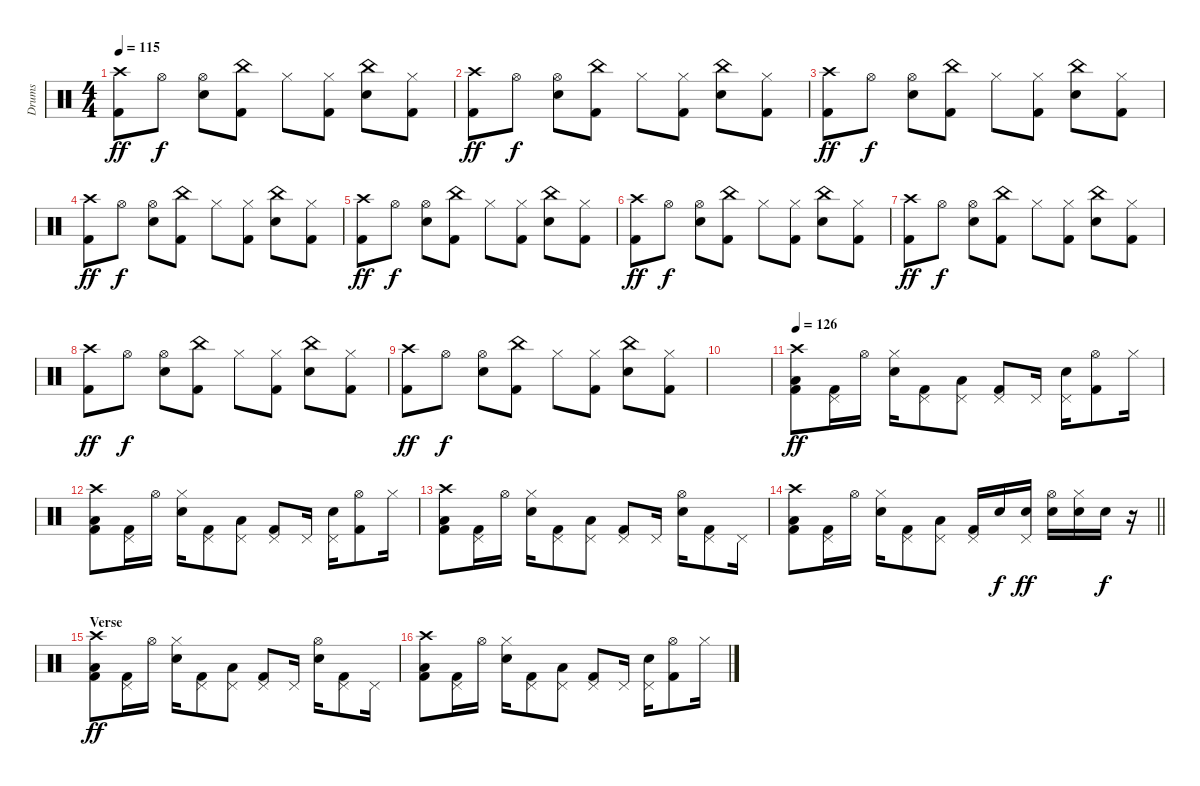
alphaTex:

\track ("Drums" "Drums") {instrument percussion}
\staff {score}
\articulation defaults
\ts (4 4)
\tempo 115
\clef neutral
\ks c
("Kick (hit) 2" "Crash high (hit)").8{dy ff} "Hi-Hat (open)".8{dy f} ("Electric Snare (hit)" "Hi-Hat (open)").8 ("Kick (hit) 2" "China (hit)").8 "Hi-Hat (closed)".8 ("Kick (hit) 2" "Hi-Hat (closed)").8 ("Snare (hit) 2" "China (hit)").8 ("Kick (hit) 2" "Hi-Hat (closed)").8 |
("Kick (hit) 2" "Crash high (hit)").8{dy ff} "Hi-Hat (open)".8{dy f} ("Electric Snare (hit)" "Hi-Hat (open)").8 ("Kick (hit) 2" "China (hit)").8 "Hi-Hat (closed)".8 ("Kick (hit) 2" "Hi-Hat (closed)").8 ("Snare (hit) 2" "China (hit)").8 ("Kick (hit) 2" "Hi-Hat (closed)").8 |
("Kick (hit) 2" "Crash high (hit)").8{dy ff} "Hi-Hat (open)".8{dy f} ("Electric Snare (hit)" "Hi-Hat (open)").8 ("Kick (hit) 2" "China (hit)").8 "Hi-Hat (closed)".8 ("Kick (hit) 2" "Hi-Hat (closed)").8 ("Snare (hit) 2" "China (hit)").8 ("Kick (hit) 2" "Hi-Hat (closed)").8 |
("Kick (hit) 2" "Crash high (hit)").8{dy ff} "Hi-Hat (open)".8{dy f} ("Electric Snare (hit)" "Hi-Hat (open)").8 ("Kick (hit) 2" "China (hit)").8 "Hi-Hat (closed)".8 ("Kick (hit) 2" "Hi-Hat (closed)").8 ("Snare (hit) 2" "China (hit)").8 ("Kick (hit) 2" "Hi-Hat (closed)").8 |
("Kick (hit) 2" "Crash high (hit)").8{dy ff} "Hi-Hat (open)".8{dy f} ("Electric Snare (hit)" "Hi-Hat (open)").8 ("Kick (hit) 2" "China (hit)").8 "Hi-Hat (closed)".8 ("Kick (hit) 2" "Hi-Hat (closed)").8 ("Snare (hit) 2" "China (hit)").8 ("Kick (hit) 2" "Hi-Hat (closed)").8 |
("Kick (hit) 2" "Crash high (hit)").8{dy ff} "Hi-Hat (open)".8{dy f} ("Electric Snare (hit)" "Hi-Hat (open)").8 ("Kick (hit) 2" "China (hit)").8 "Hi-Hat (closed)".8 ("Kick (hit) 2" "Hi-Hat (closed)").8 ("Snare (hit) 2" "China (hit)").8 ("Kick (hit) 2" "Hi-Hat (closed)").8 |
("Kick (hit) 2" "Crash high (hit)").8{dy ff} "Hi-Hat (open)".8{dy f} ("Electric Snare (hit)" "Hi-Hat (open)").8 ("Kick (hit) 2" "China (hit)").8 "Hi-Hat (closed)".8 ("Kick (hit) 2" "Hi-Hat (closed)").8 ("Snare (hit) 2" "China (hit)").8 ("Kick (hit) 2" "Hi-Hat (closed)").8 |
("Kick (hit) 2" "Crash high (hit)").8{dy ff} "Hi-Hat (open)".8{dy f} ("Electric Snare (hit)" "Hi-Hat (open)").8 ("Kick (hit) 2" "China (hit)").8 "Hi-Hat (closed)".8 ("Kick (hit) 2" "Hi-Hat (closed)").8 ("Snare (hit) 2" "China (hit)").8 ("Kick (hit) 2" "Hi-Hat (closed)").8 |
("Kick (hit) 2" "Crash high (hit)").8{dy ff} "Hi-Hat (open)".8{dy f} ("Electric Snare (hit)" "Hi-Hat (open)").8 ("Kick (hit) 2" "China (hit)").8 "Hi-Hat (closed)".8 ("Kick (hit) 2" "Hi-Hat (closed)").8 ("Snare (hit) 2" "China (hit)").8 ("Kick (hit) 2" "Hi-Hat (closed)").8 |
|
\tempo 125
\tempo 126
("Low Tom (hit)" "Kick (hit) 2" "Crash high (hit)").8{dy ff} ("Kick (hit) 2" "Pedal Hi-Hat (hit)").16 "Hi-Hat (open)".16 ("Snare (hit) 2" "Hi-Hat (closed)").16 ("Kick (hit) 2" "Pedal Hi-Hat (hit)").8 ("Low Tom (hit)" "Pedal Hi-Hat (hit)").8 ("Kick (hit) 2" "Pedal Hi-Hat (hit)").8 "Pedal Hi-Hat (hit)".16 ("Snare (hit) 2" "Pedal Hi-Hat (hit)").16 ("Kick (hit) 2" "Hi-Hat (open)").8 "Hi-Hat (closed)".16 |
("Low Tom (hit)" "Kick (hit) 2" "Crash high (hit)").8 ("Kick (hit) 2" "Pedal Hi-Hat (hit)").16 "Hi-Hat (open)".16 ("Snare (hit) 2" "Hi-Hat (closed)").16 ("Kick (hit) 2" "Pedal Hi-Hat (hit)").8 ("Low Tom (hit)" "Pedal Hi-Hat (hit)").8 ("Kick (hit) 2" "Pedal Hi-Hat (hit)").8 "Pedal Hi-Hat (hit)".16 ("Snare (hit) 2" "Pedal Hi-Hat (hit)").16 ("Kick (hit) 2" "Hi-Hat (open)").8 "Hi-Hat (closed)".16 |
("Low Tom (hit)" "Kick (hit) 2" "Crash high (hit)").8 ("Kick (hit) 2" "Pedal Hi-Hat (hit)").16 "Hi-Hat (open)".16 ("Snare (hit) 2" "Hi-Hat (closed)").16 ("Kick (hit) 2" "Pedal Hi-Hat (hit)").8 ("Low Tom (hit)" "Pedal Hi-Hat (hit)").8 ("Kick (hit) 2" "Pedal Hi-Hat (hit)").8 "Pedal Hi-Hat (hit)".16 ("Snare (hit) 2" "Hi-Hat (open)").16 ("Kick (hit) 2" "Pedal Hi-Hat (hit)").8 "Pedal Hi-Hat (hit)".16 |
\barLineRight lightlight
("Low Tom (hit)" "Kick (hit) 2" "Crash high (hit)").8 ("Kick (hit) 2" "Pedal Hi-Hat (hit)").16 "Hi-Hat (open)".16 ("Snare (hit) 2" "Hi-Hat (closed)").16 ("Kick (hit) 2" "Pedal Hi-Hat (hit)").8 ("Low Tom (hit)" "Pedal Hi-Hat (hit)").8 ("Kick (hit) 2" "Pedal Hi-Hat (hit)").16 "Electric Snare (hit)".16{dy f} ("Electric Snare (hit)" "Pedal Hi-Hat (hit)").16{dy ff} ("Electric Snare (hit)" "Hi-Hat (open)").16 ("Snare (hit) 2" "Hi-Hat (closed)").16 "Snare (hit) 2".16{dy f} r.16 |
\section ("" "Verse")
("Low Tom (hit)" "Kick (hit) 2" "Crash high (hit)").8{dy ff} ("Kick (hit) 2" "Pedal Hi-Hat (hit)").16 "Hi-Hat (open)".16 ("Snare (hit) 2" "Hi-Hat (closed)").16 ("Kick (hit) 2" "Pedal Hi-Hat (hit)").8 ("Low Tom (hit)" "Pedal Hi-Hat (hit)").8 ("Kick (hit) 2" "Pedal Hi-Hat (hit)").8 "Pedal Hi-Hat (hit)".16 ("Snare (hit) 2" "Hi-Hat (open)").16 ("Kick (hit) 2" "Pedal Hi-Hat (hit)").8 "Pedal Hi-Hat (hit)".16 |
("Low Tom (hit)" "Kick (hit) 2" "Crash high (hit)").8 ("Kick (hit) 2" "Pedal Hi-Hat (hit)").16 "Hi-Hat (open)".16 ("Snare (hit) 2" "Hi-Hat (closed)").16 ("Kick (hit) 2" "Pedal Hi-Hat (hit)").8 ("Low Tom (hit)" "Pedal Hi-Hat (hit)").8 ("Kick (hit) 2" "Pedal Hi-Hat (hit)").8 "Pedal Hi-Hat (hit)".16 ("Snare (hit) 2" "Pedal Hi-Hat (hit)").16 ("Kick (hit) 2" "Hi-Hat (open)").8 "Hi-Hat (closed)".16
